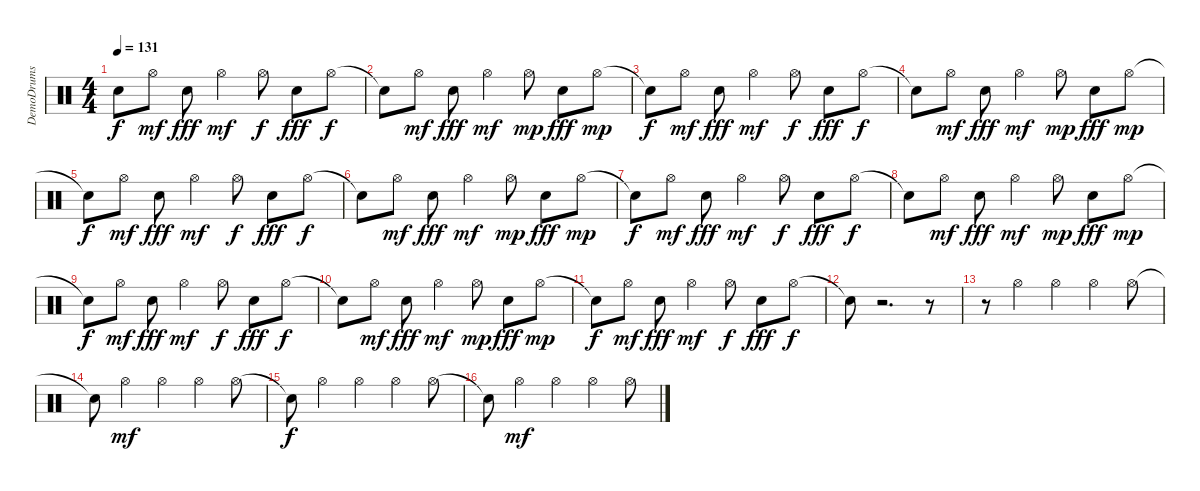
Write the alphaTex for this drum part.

\track ("DemoDrums" "DemoDrums") {instrument percussion}
\staff {score}
\articulation defaults
\ts (4 4)
\tempo 131
\clef neutral
\ks c "Snare (hit)"{t}.8{dy f} "Hi-Hat (open)".8{dy mf} "Electric Snare (hit)".8{dy fff} "Hi-Hat (open)".4{dy mf} "Hi-Hat (open)".8{dy f} "Electric Snare (hit)".8{dy fff} "Hi-Hat (open)".8{dy f}
|
"Snare (hit)"{t}.8 "Hi-Hat (open)".8{dy mf} "Electric Snare (hit)".8{dy fff} "Hi-Hat (open)".4{dy mf} "Hi-Hat (open)".8{dy mp} "Electric Snare (hit)".8{dy fff} "Hi-Hat (open)".8{dy mp} |
"Snare (hit)"{t}.8{dy f} "Hi-Hat (open)".8{dy mf} "Electric Snare (hit)".8{dy fff} "Hi-Hat (open)".4{dy mf} "Hi-Hat (open)".8{dy f} "Electric Snare (hit)".8{dy fff} "Hi-Hat (open)".8{dy f} |
"Snare (hit)"{t}.8 "Hi-Hat (open)".8{dy mf} "Electric Snare (hit)".8{dy fff} "Hi-Hat (open)".4{dy mf} "Hi-Hat (open)".8{dy mp} "Electric Snare (hit)".8{dy fff} "Hi-Hat (open)".8{dy mp} |
"Snare (hit)"{t}.8{dy f} "Hi-Hat (open)".8{dy mf} "Electric Snare (hit)".8{dy fff} "Hi-Hat (open)".4{dy mf} "Hi-Hat (open)".8{dy f} "Electric Snare (hit)".8{dy fff} "Hi-Hat (open)".8{dy f} |
"Snare (hit)"{t}.8 "Hi-Hat (open)".8{dy mf} "Electric Snare (hit)".8{dy fff} "Hi-Hat (open)".4{dy mf} "Hi-Hat (open)".8{dy mp} "Electric Snare (hit)".8{dy fff} "Hi-Hat (open)".8{dy mp} |
"Snare (hit)"{t}.8{dy f} "Hi-Hat (open)".8{dy mf} "Electric Snare (hit)".8{dy fff} "Hi-Hat (open)".4{dy mf} "Hi-Hat (open)".8{dy f} "Electric Snare (hit)".8{dy fff} "Hi-Hat (open)".8{dy f} |
"Snare (hit)"{t}.8 "Hi-Hat (open)".8{dy mf} "Electric Snare (hit)".8{dy fff} "Hi-Hat (open)".4{dy mf} "Hi-Hat (open)".8{dy mp} "Electric Snare (hit)".8{dy fff} "Hi-Hat (open)".8{dy mp} |
"Snare (hit)"{t}.8{dy f} "Hi-Hat (open)".8{dy mf} "Electric Snare (hit)".8{dy fff} "Hi-Hat (open)".4{dy mf} "Hi-Hat (open)".8{dy f} "Electric Snare (hit)".8{dy fff} "Hi-Hat (open)".8{dy f} |
"Snare (hit)"{t}.8 "Hi-Hat (open)".8{dy mf} "Electric Snare (hit)".8{dy fff} "Hi-Hat (open)".4{dy mf} "Hi-Hat (open)".8{dy mp} "Electric Snare (hit)".8{dy fff} "Hi-Hat (open)".8{dy mp} |
"Snare (hit)"{t}.8{dy f} "Hi-Hat (open)".8{dy mf} "Electric Snare (hit)".8{dy fff} "Hi-Hat (open)".4{dy mf} "Hi-Hat (open)".8{dy f} "Electric Snare (hit)".8{dy fff} "Hi-Hat (open)".8{dy f} |
"Snare (hit)"{t}.8 r.2{d} r.8 |
r.8 "Hi-Hat (open)".4 "Hi-Hat (open)".4 "Hi-Hat (open)".4 "Hi-Hat (open)".8 |
"Snare (hit)"{t}.8 "Hi-Hat (open)".4{dy mf} "Hi-Hat (open)".4 "Hi-Hat (open)".4 "Hi-Hat (open)".8 |
"Snare (hit)"{t}.8{dy f} "Hi-Hat (open)".4 "Hi-Hat (open)".4 "Hi-Hat (open)".4 "Hi-Hat (open)".8 |
"Snare (hit)"{t}.8 "Hi-Hat (open)".4{dy mf} "Hi-Hat (open)".4 "Hi-Hat (open)".4 "Hi-Hat (open)".8
